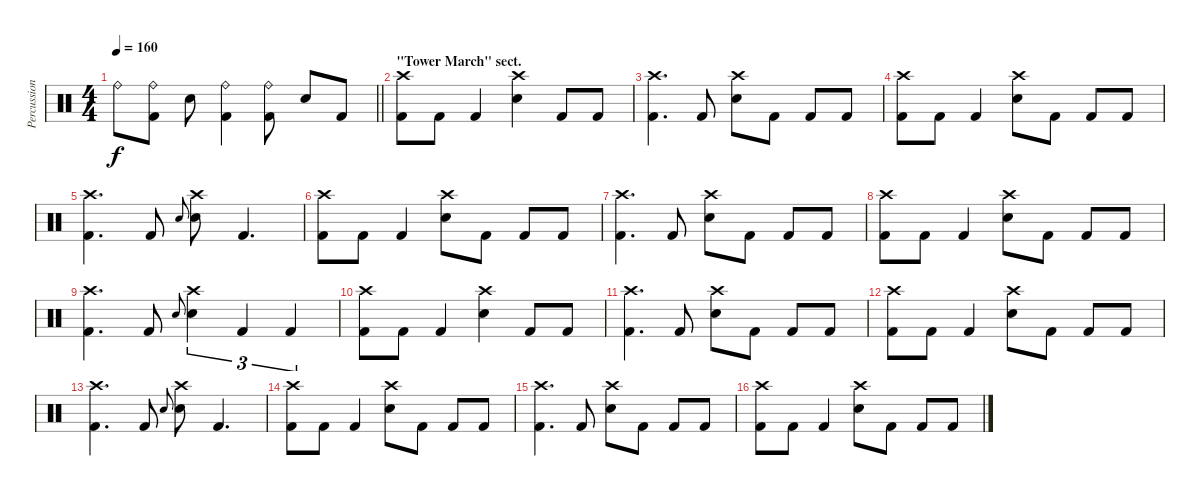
\track ("Percussion" "Percussion") {instrument percussion}
\staff {score}
\articulation defaults
\ts (4 4)
\tempo 160
\clef neutral
\barLineRight lightlight
\ks c "Ride (bell)".8{dy f}
("Ride (bell)" "Kick (hit) 2").8 "Electric Snare (hit)".8 ("Ride (bell)" "Kick (hit) 2").4 ("Ride (bell)" "Kick (hit) 2").8 "Electric Snare (hit)".8 "Kick (hit) 2".8 |
\section ("" "\"Tower March\" sect.")
("Crash high (hit)" "Kick (hit) 2").8 "Kick (hit) 2".8 "Kick (hit) 2".4 ("Crash high (hit)" "Electric Snare (hit)").4 "Kick (hit) 2".8 "Kick (hit) 2".8 |
("Crash high (hit)" "Kick (hit) 2").4{d} "Kick (hit) 2".8 ("Crash high (hit)" "Electric Snare (hit)").8 "Kick (hit) 2".8 "Kick (hit) 2".8 "Kick (hit) 2".8 |
("Crash high (hit)" "Kick (hit) 2").8 "Kick (hit) 2".8 "Kick (hit) 2".4 ("Crash high (hit)" "Electric Snare (hit)").8 "Kick (hit) 2".8 "Kick (hit) 2".8 "Kick (hit) 2".8 |
("Crash high (hit)" "Kick (hit) 2").4{d} "Kick (hit) 2".8 "Electric Snare (hit)".8{gr onbeat} ("Crash high (hit)" "Electric Snare (hit)").8 "Kick (hit) 2".4{d} |
("Crash high (hit)" "Kick (hit) 2").8 "Kick (hit) 2".8 "Kick (hit) 2".4 ("Crash high (hit)" "Electric Snare (hit)").8 "Kick (hit) 2".8 "Kick (hit) 2".8 "Kick (hit) 2".8 |
("Crash high (hit)" "Kick (hit) 2").4{d} "Kick (hit) 2".8 ("Crash high (hit)" "Electric Snare (hit)").8 "Kick (hit) 2".8 "Kick (hit) 2".8 "Kick (hit) 2".8 |
("Crash high (hit)" "Kick (hit) 2").8 "Kick (hit) 2".8 "Kick (hit) 2".4 ("Crash high (hit)" "Electric Snare (hit)").8 "Kick (hit) 2".8 "Kick (hit) 2".8 "Kick (hit) 2".8 |
("Crash high (hit)" "Kick (hit) 2").4{d} "Kick (hit) 2".8 "Electric Snare (hit)".8{gr onbeat} ("Crash high (hit)" "Electric Snare (hit)").4{tu (3 2)} "Kick (hit) 2".4{tu (3 2)} "Kick (hit) 2".4{tu (3 2)} |
("Crash high (hit)" "Kick (hit) 2").8 "Kick (hit) 2".8 "Kick (hit) 2".4 ("Crash high (hit)" "Electric Snare (hit)").4 "Kick (hit) 2".8 "Kick (hit) 2".8 |
("Crash high (hit)" "Kick (hit) 2").4{d} "Kick (hit) 2".8 ("Crash high (hit)" "Electric Snare (hit)").8 "Kick (hit) 2".8 "Kick (hit) 2".8 "Kick (hit) 2".8 |
("Crash high (hit)" "Kick (hit) 2").8 "Kick (hit) 2".8 "Kick (hit) 2".4 ("Crash high (hit)" "Electric Snare (hit)").8 "Kick (hit) 2".8 "Kick (hit) 2".8 "Kick (hit) 2".8 |
("Crash high (hit)" "Kick (hit) 2").4{d} "Kick (hit) 2".8 "Electric Snare (hit)".8{gr onbeat} ("Crash high (hit)" "Electric Snare (hit)").8 "Kick (hit) 2".4{d} |
("Crash high (hit)" "Kick (hit) 2").8 "Kick (hit) 2".8 "Kick (hit) 2".4 ("Crash high (hit)" "Electric Snare (hit)").8 "Kick (hit) 2".8 "Kick (hit) 2".8 "Kick (hit) 2".8 |
("Crash high (hit)" "Kick (hit) 2").4{d} "Kick (hit) 2".8 ("Crash high (hit)" "Electric Snare (hit)").8 "Kick (hit) 2".8 "Kick (hit) 2".8 "Kick (hit) 2".8 |
("Crash high (hit)" "Kick (hit) 2").8 "Kick (hit) 2".8 "Kick (hit) 2".4 ("Crash high (hit)" "Electric Snare (hit)").8 "Kick (hit) 2".8 "Kick (hit) 2".8 "Kick (hit) 2".8
